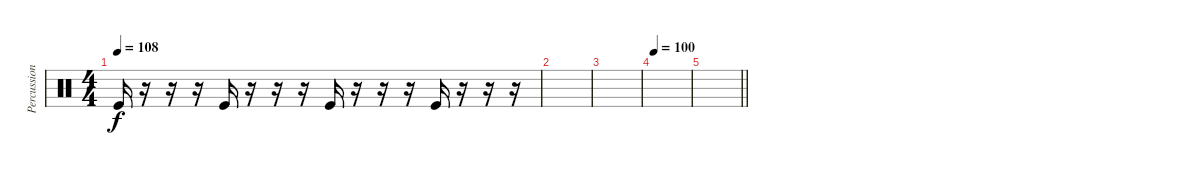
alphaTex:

\track ("Percussion" "Percussion") {instrument percussion}
\staff {score}
\articulation defaults
\ts (4 4)
\tempo 108
\clef neutral
\ks c "Kick (hit)".16{dy f}
r.16 r.16 r.16 "Kick (hit)".16 r.16 r.16 r.16 "Kick (hit)".16 r.16 r.16 r.16 "Kick (hit)".16 r.16 r.16 r.16 |
|
|
\tempo 100
|
\barLineRight lightlight
